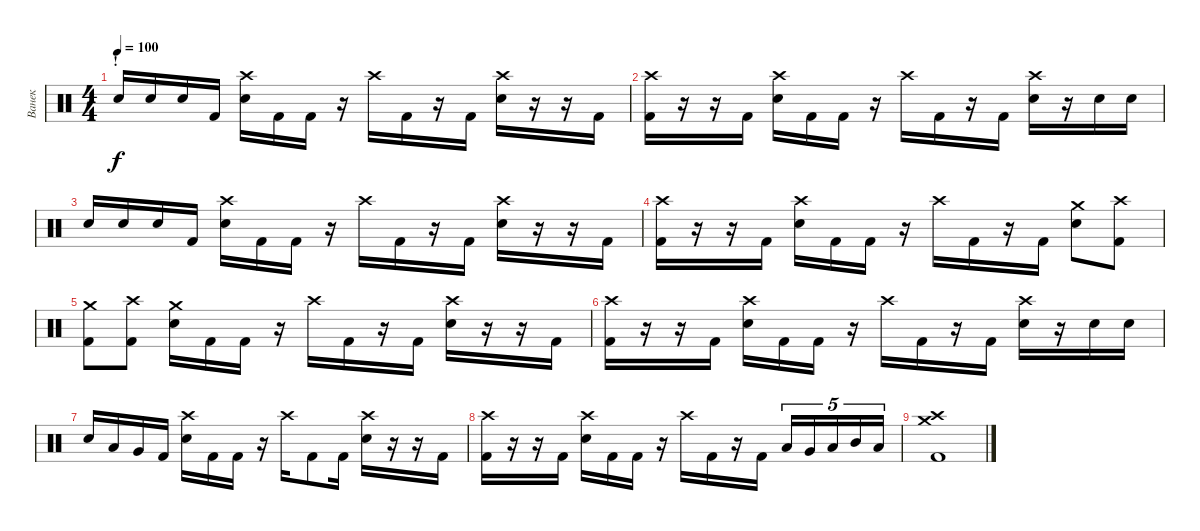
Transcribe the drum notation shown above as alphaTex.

\track ("Ванек" "Ванек") {instrument percussion}
\staff {score}
\articulation defaults
\ts (4 4)
\section ("" "!")
\tempo 100
\clef neutral
\ks c "Snare (hit) 2".16{dy f} "Snare (hit) 2".16 "Snare (hit) 2".16 "Kick (hit) 2".16
("Crash high (hit)" "Snare (hit) 2").16 "Kick (hit) 2".16 "Kick (hit) 2".16 r.16 "Crash high (hit)".16 "Kick (hit) 2".16 r.16 "Kick (hit) 2".16 ("Crash high (hit)" "Snare (hit) 2").16 r.16 r.16 "Kick (hit) 2".16 |
("Crash high (hit)" "Kick (hit) 2").16 r.16 r.16 "Kick (hit) 2".16 ("Crash high (hit)" "Snare (hit) 2").16 "Kick (hit) 2".16 "Kick (hit) 2".16 r.16 "Crash high (hit)".16 "Kick (hit) 2".16 r.16 "Kick (hit) 2".16 ("Crash high (hit)" "Snare (hit) 2").16 r.16 "Snare (hit) 2".16 "Snare (hit) 2".16 |
"Snare (hit) 2".16 "Snare (hit) 2".16 "Snare (hit) 2".16 "Kick (hit) 2".16 ("Crash high (hit)" "Snare (hit) 2").16 "Kick (hit) 2".16 "Kick (hit) 2".16 r.16 "Crash high (hit)".16 "Kick (hit) 2".16 r.16 "Kick (hit) 2".16 ("Crash high (hit)" "Snare (hit) 2").16 r.16 r.16 "Kick (hit) 2".16 |
("Crash high (hit)" "Kick (hit) 2").16 r.16 r.16 "Kick (hit) 2".16 ("Crash high (hit)" "Snare (hit) 2").16 "Kick (hit) 2".16 "Kick (hit) 2".16 r.16 "Crash high (hit)".16 "Kick (hit) 2".16 r.16 "Kick (hit) 2".16 ("Crash medium (hit)" "Snare (hit) 2").8 ("Crash high (hit)" "Kick (hit) 2").8 |
("Crash medium (hit)" "Kick (hit) 2").8 ("Crash high (hit)" "Kick (hit) 2").8 ("Crash medium (hit)" "Snare (hit) 2").16 "Kick (hit) 2".16 "Kick (hit) 2".16 r.16 "Crash high (hit)".16 "Kick (hit) 2".16 r.16 "Kick (hit) 2".16 ("Crash high (hit)" "Snare (hit) 2").16 r.16 r.16 "Kick (hit) 2".16 |
("Crash high (hit)" "Kick (hit) 2").16 r.16 r.16 "Kick (hit) 2".16 ("Crash high (hit)" "Snare (hit) 2").16 "Kick (hit) 2".16 "Kick (hit) 2".16 r.16 "Crash high (hit)".16 "Kick (hit) 2".16 r.16 "Kick (hit) 2".16 ("Crash high (hit)" "Snare (hit) 2").16 r.16 "Snare (hit) 2".16 "Snare (hit) 2".16 |
"Snare (hit) 2".16 "Low Floor Tom (hit)".16 "Very Low Tom (hit)".16 "Kick (hit) 2".16 ("Crash high (hit)" "Snare (hit) 2").16 "Kick (hit) 2".16 "Kick (hit) 2".16 r.16 "Crash high (hit)".16 "Kick (hit) 2".8 "Kick (hit) 2".16 ("Crash high (hit)" "Snare (hit) 2").16 r.16 r.16 "Kick (hit) 2".16 |
("Crash high (hit)" "Kick (hit) 2").16 r.16 r.16 "Kick (hit) 2".16 ("Crash high (hit)" "Snare (hit) 2").16 "Kick (hit) 2".16 "Kick (hit) 2".16 r.16 "Crash high (hit)".16 "Kick (hit) 2".16 r.16 "Kick (hit) 2".16 "Low Floor Tom (hit)".16{tu (5 4)} "Very Low Tom (hit)".16{tu (5 4)} "Low Tom (hit)".16{tu (5 4)} "Mid Tom (hit)".16{tu (5 4)} "Low Tom (hit)".16{tu (5 4)} |
("Crash high (hit)" "Crash medium (hit)" "Kick (hit) 2").1
